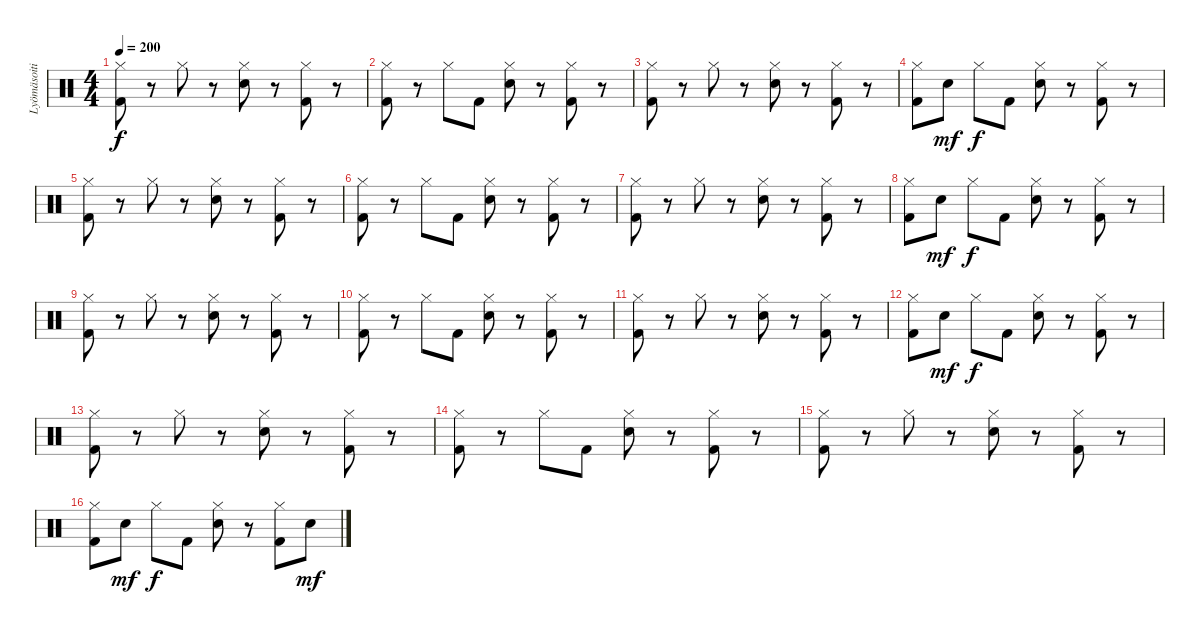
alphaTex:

\track ("Lyömäsoitin" "Lyömäsoiti") {instrument percussion}
\staff {score}
\articulation defaults
\ts (4 4)
\tempo 200
\clef neutral
\ks c
("Kick (hit) 2" "Hi-Hat (closed)").8{dy f} r.8 "Hi-Hat (closed)".8 r.8 ("Snare (hit) 2" "Hi-Hat (closed)").8 r.8 ("Hi-Hat (closed)" "Kick (hit) 2").8 r.8 |
("Kick (hit) 2" "Hi-Hat (closed)").8 r.8 "Hi-Hat (closed)".8 "Kick (hit) 2".8 ("Snare (hit) 2" "Hi-Hat (closed)").8 r.8 ("Kick (hit) 2" "Hi-Hat (closed)").8 r.8 |
("Kick (hit) 2" "Hi-Hat (closed)").8 r.8 "Hi-Hat (closed)".8 r.8 ("Snare (hit) 2" "Hi-Hat (closed)").8 r.8 ("Hi-Hat (closed)" "Kick (hit) 2").8 r.8 |
("Kick (hit) 2" "Hi-Hat (closed)").8 "Snare (hit) 2".8{dy mf} "Hi-Hat (closed)".8{dy f} "Kick (hit) 2".8 ("Snare (hit) 2" "Hi-Hat (closed)").8 r.8 ("Kick (hit) 2" "Hi-Hat (closed)").8 r.8 |
("Kick (hit) 2" "Hi-Hat (closed)").8 r.8 "Hi-Hat (closed)".8 r.8 ("Snare (hit) 2" "Hi-Hat (closed)").8 r.8 ("Hi-Hat (closed)" "Kick (hit) 2").8 r.8 |
("Kick (hit) 2" "Hi-Hat (closed)").8 r.8 "Hi-Hat (closed)".8 "Kick (hit) 2".8 ("Snare (hit) 2" "Hi-Hat (closed)").8 r.8 ("Kick (hit) 2" "Hi-Hat (closed)").8 r.8 |
("Kick (hit) 2" "Hi-Hat (closed)").8 r.8 "Hi-Hat (closed)".8 r.8 ("Snare (hit) 2" "Hi-Hat (closed)").8 r.8 ("Hi-Hat (closed)" "Kick (hit) 2").8 r.8 |
("Kick (hit) 2" "Hi-Hat (closed)").8 "Snare (hit) 2".8{dy mf} "Hi-Hat (closed)".8{dy f} "Kick (hit) 2".8 ("Snare (hit) 2" "Hi-Hat (closed)").8 r.8 ("Kick (hit) 2" "Hi-Hat (closed)").8 r.8 |
("Kick (hit) 2" "Hi-Hat (closed)").8 r.8 "Hi-Hat (closed)".8 r.8 ("Snare (hit) 2" "Hi-Hat (closed)").8 r.8 ("Hi-Hat (closed)" "Kick (hit) 2").8 r.8 |
("Kick (hit) 2" "Hi-Hat (closed)").8 r.8 "Hi-Hat (closed)".8 "Kick (hit) 2".8 ("Snare (hit) 2" "Hi-Hat (closed)").8 r.8 ("Kick (hit) 2" "Hi-Hat (closed)").8 r.8 |
("Kick (hit) 2" "Hi-Hat (closed)").8 r.8 "Hi-Hat (closed)".8 r.8 ("Snare (hit) 2" "Hi-Hat (closed)").8 r.8 ("Hi-Hat (closed)" "Kick (hit) 2").8 r.8 |
("Kick (hit) 2" "Hi-Hat (closed)").8 "Snare (hit) 2".8{dy mf} "Hi-Hat (closed)".8{dy f} "Kick (hit) 2".8 ("Snare (hit) 2" "Hi-Hat (closed)").8 r.8 ("Kick (hit) 2" "Hi-Hat (closed)").8 r.8 |
("Kick (hit) 2" "Hi-Hat (closed)").8 r.8 "Hi-Hat (closed)".8 r.8 ("Snare (hit) 2" "Hi-Hat (closed)").8 r.8 ("Hi-Hat (closed)" "Kick (hit) 2").8 r.8 |
("Kick (hit) 2" "Hi-Hat (closed)").8 r.8 "Hi-Hat (closed)".8 "Kick (hit) 2".8 ("Snare (hit) 2" "Hi-Hat (closed)").8 r.8 ("Kick (hit) 2" "Hi-Hat (closed)").8 r.8 |
("Kick (hit) 2" "Hi-Hat (closed)").8 r.8 "Hi-Hat (closed)".8 r.8 ("Snare (hit) 2" "Hi-Hat (closed)").8 r.8 ("Hi-Hat (closed)" "Kick (hit) 2").8 r.8 |
("Kick (hit) 2" "Hi-Hat (closed)").8 "Snare (hit) 2".8{dy mf} "Hi-Hat (closed)".8{dy f} "Kick (hit) 2".8 ("Snare (hit) 2" "Hi-Hat (closed)").8 r.8 ("Kick (hit) 2" "Hi-Hat (closed)").8 "Snare (hit) 2".8{dy mf}
